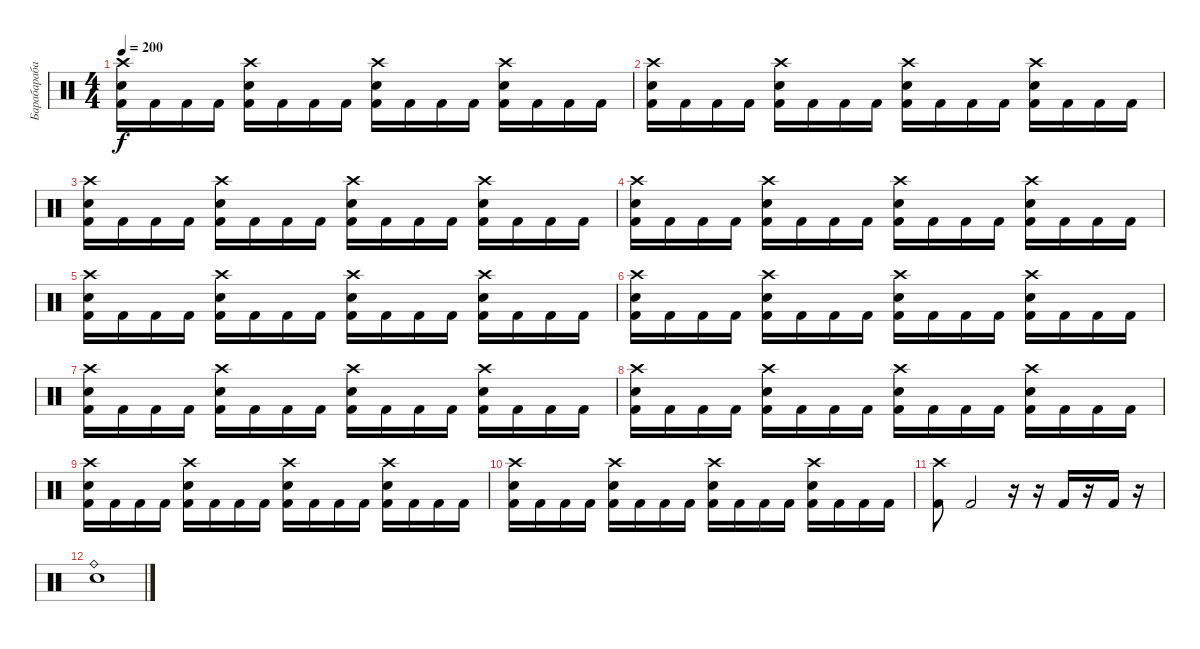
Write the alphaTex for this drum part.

\track ("Барабарабаны" "Барабараба") {instrument percussion}
\staff {score}
\articulation defaults
\ts (4 4)
\tempo 200
\clef neutral
\ks c
("Kick (hit) 2" "Electric Snare (hit)" "Crash high (hit)").16{dy f} "Kick (hit) 2".16 "Kick (hit) 2".16 "Kick (hit) 2".16 ("Kick (hit) 2" "Electric Snare (hit)" "Crash high (hit)").16 "Kick (hit) 2".16 "Kick (hit) 2".16 "Kick (hit) 2".16 ("Kick (hit) 2" "Electric Snare (hit)" "Crash high (hit)").16 "Kick (hit) 2".16 "Kick (hit) 2".16 "Kick (hit) 2".16 ("Kick (hit) 2" "Electric Snare (hit)" "Crash high (hit)").16 "Kick (hit) 2".16 "Kick (hit) 2".16 "Kick (hit) 2".16 |
("Kick (hit) 2" "Electric Snare (hit)" "Crash high (hit)").16 "Kick (hit) 2".16 "Kick (hit) 2".16 "Kick (hit) 2".16 ("Kick (hit) 2" "Electric Snare (hit)" "Crash high (hit)").16 "Kick (hit) 2".16 "Kick (hit) 2".16 "Kick (hit) 2".16 ("Kick (hit) 2" "Electric Snare (hit)" "Crash high (hit)").16 "Kick (hit) 2".16 "Kick (hit) 2".16 "Kick (hit) 2".16 ("Kick (hit) 2" "Electric Snare (hit)" "Crash high (hit)").16 "Kick (hit) 2".16 "Kick (hit) 2".16 "Kick (hit) 2".16 |
("Kick (hit) 2" "Electric Snare (hit)" "Crash high (hit)").16 "Kick (hit) 2".16 "Kick (hit) 2".16 "Kick (hit) 2".16 ("Kick (hit) 2" "Electric Snare (hit)" "Crash high (hit)").16 "Kick (hit) 2".16 "Kick (hit) 2".16 "Kick (hit) 2".16 ("Kick (hit) 2" "Electric Snare (hit)" "Crash high (hit)").16 "Kick (hit) 2".16 "Kick (hit) 2".16 "Kick (hit) 2".16 ("Kick (hit) 2" "Electric Snare (hit)" "Crash high (hit)").16 "Kick (hit) 2".16 "Kick (hit) 2".16 "Kick (hit) 2".16 |
("Kick (hit) 2" "Electric Snare (hit)" "Crash high (hit)").16 "Kick (hit) 2".16 "Kick (hit) 2".16 "Kick (hit) 2".16 ("Kick (hit) 2" "Electric Snare (hit)" "Crash high (hit)").16 "Kick (hit) 2".16 "Kick (hit) 2".16 "Kick (hit) 2".16 ("Kick (hit) 2" "Electric Snare (hit)" "Crash high (hit)").16 "Kick (hit) 2".16 "Kick (hit) 2".16 "Kick (hit) 2".16 ("Kick (hit) 2" "Electric Snare (hit)" "Crash high (hit)").16 "Kick (hit) 2".16 "Kick (hit) 2".16 "Kick (hit) 2".16 |
("Kick (hit) 2" "Electric Snare (hit)" "Crash high (hit)").16 "Kick (hit) 2".16 "Kick (hit) 2".16 "Kick (hit) 2".16 ("Kick (hit) 2" "Electric Snare (hit)" "Crash high (hit)").16 "Kick (hit) 2".16 "Kick (hit) 2".16 "Kick (hit) 2".16 ("Kick (hit) 2" "Electric Snare (hit)" "Crash high (hit)").16 "Kick (hit) 2".16 "Kick (hit) 2".16 "Kick (hit) 2".16 ("Kick (hit) 2" "Electric Snare (hit)" "Crash high (hit)").16 "Kick (hit) 2".16 "Kick (hit) 2".16 "Kick (hit) 2".16 |
("Kick (hit) 2" "Electric Snare (hit)" "Crash high (hit)").16 "Kick (hit) 2".16 "Kick (hit) 2".16 "Kick (hit) 2".16 ("Kick (hit) 2" "Electric Snare (hit)" "Crash high (hit)").16 "Kick (hit) 2".16 "Kick (hit) 2".16 "Kick (hit) 2".16 ("Kick (hit) 2" "Electric Snare (hit)" "Crash high (hit)").16 "Kick (hit) 2".16 "Kick (hit) 2".16 "Kick (hit) 2".16 ("Kick (hit) 2" "Electric Snare (hit)" "Crash high (hit)").16 "Kick (hit) 2".16 "Kick (hit) 2".16 "Kick (hit) 2".16 |
("Kick (hit) 2" "Electric Snare (hit)" "Crash high (hit)").16 "Kick (hit) 2".16 "Kick (hit) 2".16 "Kick (hit) 2".16 ("Kick (hit) 2" "Electric Snare (hit)" "Crash high (hit)").16 "Kick (hit) 2".16 "Kick (hit) 2".16 "Kick (hit) 2".16 ("Kick (hit) 2" "Electric Snare (hit)" "Crash high (hit)").16 "Kick (hit) 2".16 "Kick (hit) 2".16 "Kick (hit) 2".16 ("Kick (hit) 2" "Electric Snare (hit)" "Crash high (hit)").16 "Kick (hit) 2".16 "Kick (hit) 2".16 "Kick (hit) 2".16 |
("Kick (hit) 2" "Electric Snare (hit)" "Crash high (hit)").16 "Kick (hit) 2".16 "Kick (hit) 2".16 "Kick (hit) 2".16 ("Kick (hit) 2" "Electric Snare (hit)" "Crash high (hit)").16 "Kick (hit) 2".16 "Kick (hit) 2".16 "Kick (hit) 2".16 ("Kick (hit) 2" "Electric Snare (hit)" "Crash high (hit)").16 "Kick (hit) 2".16 "Kick (hit) 2".16 "Kick (hit) 2".16 ("Kick (hit) 2" "Electric Snare (hit)" "Crash high (hit)").16 "Kick (hit) 2".16 "Kick (hit) 2".16 "Kick (hit) 2".16 |
("Kick (hit) 2" "Electric Snare (hit)" "Crash high (hit)").16 "Kick (hit) 2".16 "Kick (hit) 2".16 "Kick (hit) 2".16 ("Kick (hit) 2" "Electric Snare (hit)" "Crash high (hit)").16 "Kick (hit) 2".16 "Kick (hit) 2".16 "Kick (hit) 2".16 ("Kick (hit) 2" "Electric Snare (hit)" "Crash high (hit)").16 "Kick (hit) 2".16 "Kick (hit) 2".16 "Kick (hit) 2".16 ("Kick (hit) 2" "Electric Snare (hit)" "Crash high (hit)").16 "Kick (hit) 2".16 "Kick (hit) 2".16 "Kick (hit) 2".16 |
("Kick (hit) 2" "Electric Snare (hit)" "Crash high (hit)").16 "Kick (hit) 2".16 "Kick (hit) 2".16 "Kick (hit) 2".16 ("Kick (hit) 2" "Electric Snare (hit)" "Crash high (hit)").16 "Kick (hit) 2".16 "Kick (hit) 2".16 "Kick (hit) 2".16 ("Kick (hit) 2" "Electric Snare (hit)" "Crash high (hit)").16 "Kick (hit) 2".16 "Kick (hit) 2".16 "Kick (hit) 2".16 ("Kick (hit) 2" "Electric Snare (hit)" "Crash high (hit)").16 "Kick (hit) 2".16 "Kick (hit) 2".16 "Kick (hit) 2".16 |
("Kick (hit) 2" "Crash high (hit)").8 "Kick (hit) 2".2 r.16 r.16 "Kick (hit) 2".16 r.16 "Kick (hit) 2".16 r.16 |
("Ride (bell)" "Electric Snare (hit)").1
